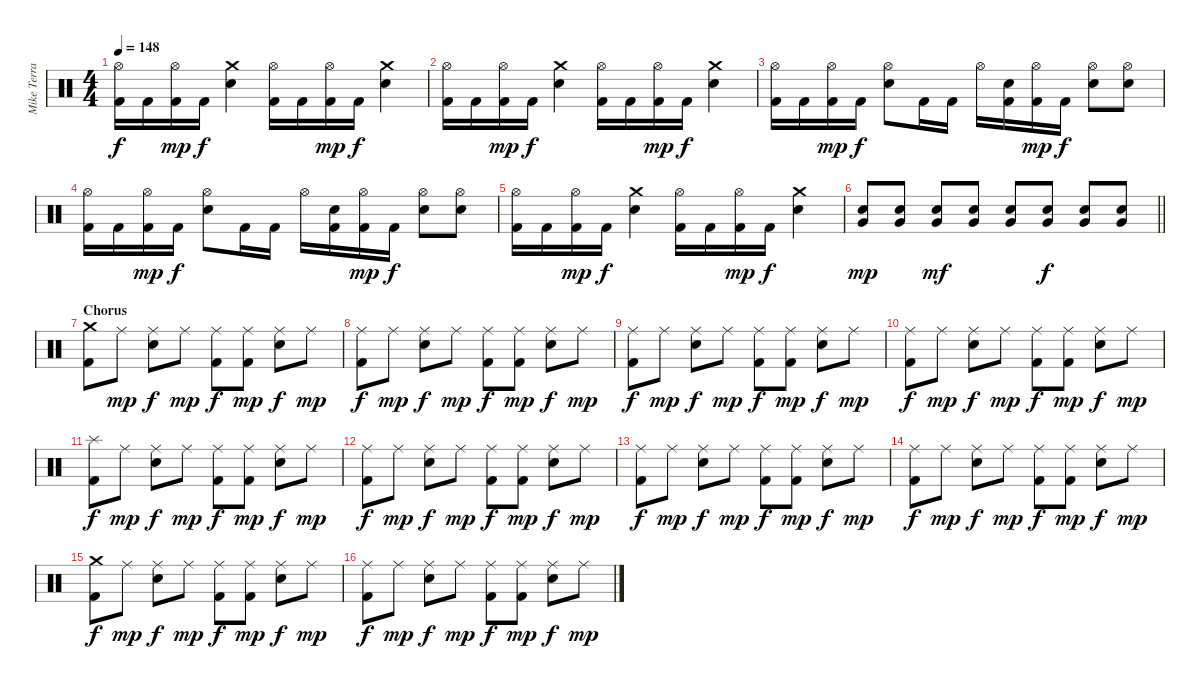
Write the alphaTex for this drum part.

\track ("Mike Terrana" "Mike Terra") {instrument percussion}
\staff {score}
\articulation defaults
\ts (4 4)
\tempo 148
\clef neutral
\ks c
("Hi-Hat (open)" "Kick (hit) 2").16{dy f} "Kick (hit) 2".16 ("Hi-Hat (open)" "Kick (hit) 2").16{dy mp} "Kick (hit) 2".16{dy f} ("Crash medium (hit)" "Snare (hit) 2").4 ("Hi-Hat (open)" "Kick (hit) 2").16 "Kick (hit) 2".16 ("Hi-Hat (open)" "Kick (hit) 2").16{dy mp} "Kick (hit) 2".16{dy f} ("Crash medium (hit)" "Snare (hit) 2").4 |
("Hi-Hat (open)" "Kick (hit) 2").16 "Kick (hit) 2".16 ("Hi-Hat (open)" "Kick (hit) 2").16{dy mp} "Kick (hit) 2".16{dy f} ("Crash medium (hit)" "Snare (hit) 2").4 ("Hi-Hat (open)" "Kick (hit) 2").16 "Kick (hit) 2".16 ("Hi-Hat (open)" "Kick (hit) 2").16{dy mp} "Kick (hit) 2".16{dy f} ("Crash medium (hit)" "Snare (hit) 2").4 |
("Hi-Hat (open)" "Kick (hit) 2").16 "Kick (hit) 2".16 ("Hi-Hat (open)" "Kick (hit) 2").16{dy mp} "Kick (hit) 2".16{dy f} ("Hi-Hat (open)" "Snare (hit) 2").8 "Kick (hit) 2".16 "Kick (hit) 2".16 "Hi-Hat (open)".16 ("Snare (hit) 2" "Kick (hit) 2").16 ("Hi-Hat (open)" "Kick (hit) 2").16{dy mp} "Kick (hit) 2".16{dy f} ("Hi-Hat (open)" "Snare (hit) 2").8 ("Hi-Hat (open)" "Snare (hit) 2").8 |
("Hi-Hat (open)" "Kick (hit) 2").16 "Kick (hit) 2".16 ("Hi-Hat (open)" "Kick (hit) 2").16{dy mp} "Kick (hit) 2".16{dy f} ("Hi-Hat (open)" "Snare (hit) 2").8 "Kick (hit) 2".16 "Kick (hit) 2".16 "Hi-Hat (open)".16 ("Snare (hit) 2" "Kick (hit) 2").16 ("Hi-Hat (open)" "Kick (hit) 2").16{dy mp} "Kick (hit) 2".16{dy f} ("Hi-Hat (open)" "Snare (hit) 2").8 ("Hi-Hat (open)" "Snare (hit) 2").8 |
("Hi-Hat (open)" "Kick (hit) 2").16 "Kick (hit) 2".16 ("Hi-Hat (open)" "Kick (hit) 2").16{dy mp} "Kick (hit) 2".16{dy f} ("Crash medium (hit)" "Snare (hit) 2").4 ("Hi-Hat (open)" "Kick (hit) 2").16 "Kick (hit) 2".16 ("Hi-Hat (open)" "Kick (hit) 2").16{dy mp} "Kick (hit) 2".16{dy f} ("Crash medium (hit)" "Snare (hit) 2").4 |
\barLineRight lightlight
("Snare (hit) 2" "Very Low Tom (hit)").8{dy mp} ("Snare (hit) 2" "Very Low Tom (hit)").8 ("Snare (hit) 2" "Very Low Tom (hit)").8{dy mf} ("Snare (hit) 2" "Very Low Tom (hit)").8 ("Snare (hit) 2" "Very Low Tom (hit)").8 ("Snare (hit) 2" "Very Low Tom (hit)").8{dy f} ("Snare (hit) 2" "Very Low Tom (hit)").8 ("Snare (hit) 2" "Very Low Tom (hit)").8 |
\section ("" "Chorus")
("Crash medium (hit)" "Kick (hit) 2").8 "Ride (middle)".8{dy mp} ("Ride (middle)" "Snare (hit) 2").8{dy f} "Ride (middle)".8{dy mp} ("Ride (middle)" "Kick (hit) 2").8{dy f} ("Ride (middle)" "Kick (hit) 2").8{dy mp} ("Ride (middle)" "Snare (hit) 2").8{dy f} "Ride (middle)".8{dy mp} |
("Ride (middle)" "Kick (hit) 2").8{dy f} "Ride (middle)".8{dy mp} ("Ride (middle)" "Snare (hit) 2").8{dy f} "Ride (middle)".8{dy mp} ("Ride (middle)" "Kick (hit) 2").8{dy f} ("Ride (middle)" "Kick (hit) 2").8{dy mp} ("Ride (middle)" "Snare (hit) 2").8{dy f} "Ride (middle)".8{dy mp} |
("Ride (middle)" "Kick (hit) 2").8{dy f} "Ride (middle)".8{dy mp} ("Ride (middle)" "Snare (hit) 2").8{dy f} "Ride (middle)".8{dy mp} ("Ride (middle)" "Kick (hit) 2").8{dy f} ("Ride (middle)" "Kick (hit) 2").8{dy mp} ("Ride (middle)" "Snare (hit) 2").8{dy f} "Ride (middle)".8{dy mp} |
("Ride (middle)" "Kick (hit) 2").8{dy f} "Ride (middle)".8{dy mp} ("Ride (middle)" "Snare (hit) 2").8{dy f} "Ride (middle)".8{dy mp} ("Ride (middle)" "Kick (hit) 2").8{dy f} ("Ride (middle)" "Kick (hit) 2").8{dy mp} ("Ride (middle)" "Snare (hit) 2").8{dy f} "Ride (middle)".8{dy mp} |
("Splash (hit)" "Kick (hit) 2").8{dy f} "Ride (middle)".8{dy mp} ("Ride (middle)" "Snare (hit) 2").8{dy f} "Ride (middle)".8{dy mp} ("Ride (middle)" "Kick (hit) 2").8{dy f} ("Ride (middle)" "Kick (hit) 2").8{dy mp} ("Ride (middle)" "Snare (hit) 2").8{dy f} "Ride (middle)".8{dy mp} |
("Ride (middle)" "Kick (hit) 2").8{dy f} "Ride (middle)".8{dy mp} ("Ride (middle)" "Snare (hit) 2").8{dy f} "Ride (middle)".8{dy mp} ("Ride (middle)" "Kick (hit) 2").8{dy f} ("Ride (middle)" "Kick (hit) 2").8{dy mp} ("Ride (middle)" "Snare (hit) 2").8{dy f} "Ride (middle)".8{dy mp} |
("Ride (middle)" "Kick (hit) 2").8{dy f} "Ride (middle)".8{dy mp} ("Ride (middle)" "Snare (hit) 2").8{dy f} "Ride (middle)".8{dy mp} ("Ride (middle)" "Kick (hit) 2").8{dy f} ("Ride (middle)" "Kick (hit) 2").8{dy mp} ("Ride (middle)" "Snare (hit) 2").8{dy f} "Ride (middle)".8{dy mp} |
("Ride (middle)" "Kick (hit) 2").8{dy f} "Ride (middle)".8{dy mp} ("Ride (middle)" "Snare (hit) 2").8{dy f} "Ride (middle)".8{dy mp} ("Ride (middle)" "Kick (hit) 2").8{dy f} ("Ride (middle)" "Kick (hit) 2").8{dy mp} ("Ride (middle)" "Snare (hit) 2").8{dy f} "Ride (middle)".8{dy mp} |
("Crash medium (hit)" "Kick (hit) 2").8{dy f} "Ride (middle)".8{dy mp} ("Ride (middle)" "Snare (hit) 2").8{dy f} "Ride (middle)".8{dy mp} ("Ride (middle)" "Kick (hit) 2").8{dy f} ("Ride (middle)" "Kick (hit) 2").8{dy mp} ("Ride (middle)" "Snare (hit) 2").8{dy f} "Ride (middle)".8{dy mp} |
("Ride (middle)" "Kick (hit) 2").8{dy f} "Ride (middle)".8{dy mp} ("Ride (middle)" "Snare (hit) 2").8{dy f} "Ride (middle)".8{dy mp} ("Ride (middle)" "Kick (hit) 2").8{dy f} ("Ride (middle)" "Kick (hit) 2").8{dy mp} ("Ride (middle)" "Snare (hit) 2").8{dy f} "Ride (middle)".8{dy mp}
